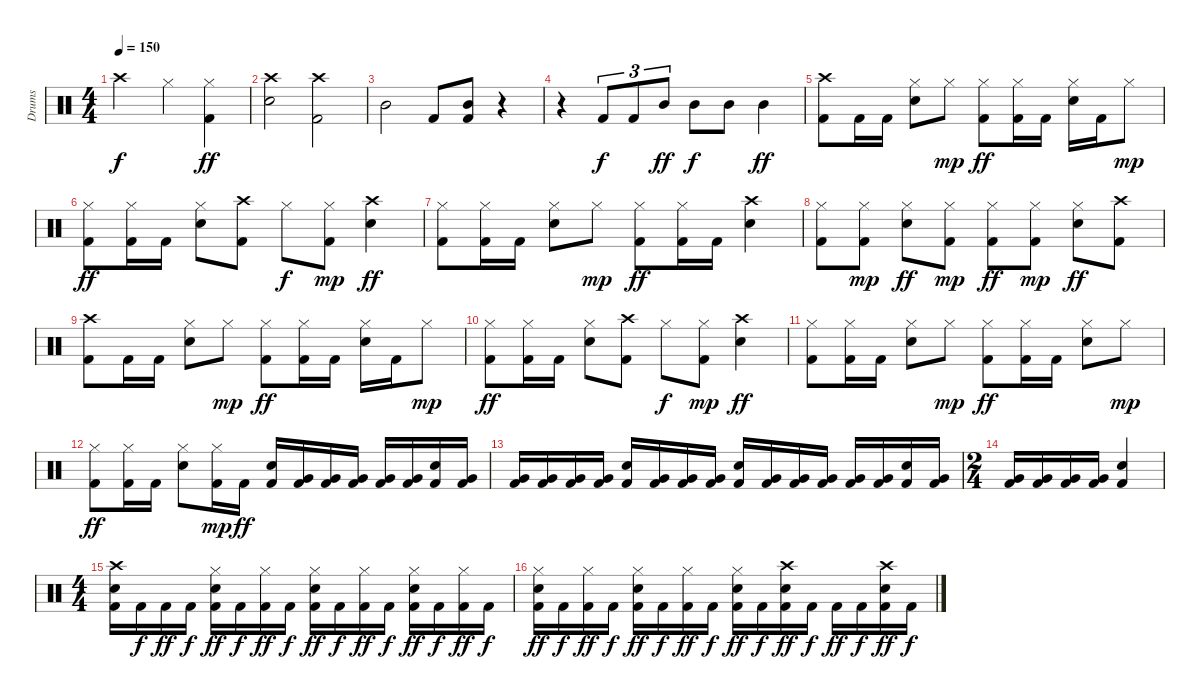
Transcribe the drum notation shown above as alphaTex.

\track ("Drums" "Drums") {instrument percussion}
\staff {score}
\articulation defaults
\ts (4 4)
\tempo 150
\clef neutral
\ks c "Crash high (hit)".2{dy f} "Hi-Hat (closed)".4
("Hi-Hat (closed)" "Kick (hit) 2").4{dy ff} |
("Crash high (hit)" "Snare (hit) 2").2 ("Crash high (hit)" "Kick (hit) 2").2 |
"Mid Tom (hit)".2 "Kick (hit) 2".8 ("Kick (hit) 2" "Mid Tom (hit)").8 r.4 |
r.4 "Kick (hit) 2".8{tu (3 2) dy f} "Kick (hit) 2".8{tu (3 2)} "Mid Tom (hit)".8{tu (3 2) dy ff} "Mid Tom (hit)".8{dy f} "Mid Tom (hit)".8 "Mid Tom (hit)".4{dy ff} |
("Crash high (hit)" "Kick (hit) 2").8 "Kick (hit) 2".16 "Kick (hit) 2".16 ("Hi-Hat (closed)" "Snare (hit) 2").8 "Hi-Hat (closed)".8{dy mp} ("Hi-Hat (closed)" "Kick (hit) 2").8{dy ff} ("Hi-Hat (closed)" "Kick (hit) 2").16 "Kick (hit) 2".16 ("Hi-Hat (closed)" "Snare (hit) 2").16 "Kick (hit) 2".16 "Hi-Hat (closed)".8{dy mp} |
("Hi-Hat (closed)" "Kick (hit) 2").8{dy ff} ("Hi-Hat (closed)" "Kick (hit) 2").16 "Kick (hit) 2".16 ("Hi-Hat (closed)" "Snare (hit) 2").8 ("Crash high (hit)" "Kick (hit) 2").8 "Hi-Hat (closed)".8{dy f} ("Kick (hit) 2" "Hi-Hat (closed)").8{dy mp} ("Snare (hit) 2" "Crash high (hit)").4{dy ff} |
("Hi-Hat (closed)" "Kick (hit) 2").8 ("Hi-Hat (closed)" "Kick (hit) 2").16 "Kick (hit) 2".16 ("Hi-Hat (closed)" "Snare (hit) 2").8 "Hi-Hat (closed)".8{dy mp} ("Hi-Hat (closed)" "Kick (hit) 2").8{dy ff} ("Hi-Hat (closed)" "Kick (hit) 2").16 "Kick (hit) 2".16 ("Snare (hit) 2" "Crash high (hit)").4 |
("Hi-Hat (closed)" "Kick (hit) 2").8 ("Kick (hit) 2" "Hi-Hat (closed)").8{dy mp} ("Hi-Hat (closed)" "Snare (hit) 2").8{dy ff} ("Kick (hit) 2" "Hi-Hat (closed)").8{dy mp} ("Hi-Hat (closed)" "Kick (hit) 2").8{dy ff} ("Kick (hit) 2" "Hi-Hat (closed)").8{dy mp} ("Hi-Hat (closed)" "Snare (hit) 2").8{dy ff} ("Kick (hit) 2" "Crash high (hit)").8 |
("Crash high (hit)" "Kick (hit) 2").8 "Kick (hit) 2".16 "Kick (hit) 2".16 ("Hi-Hat (closed)" "Snare (hit) 2").8 "Hi-Hat (closed)".8{dy mp} ("Hi-Hat (closed)" "Kick (hit) 2").8{dy ff} ("Hi-Hat (closed)" "Kick (hit) 2").16 "Kick (hit) 2".16 ("Hi-Hat (closed)" "Snare (hit) 2").16 "Kick (hit) 2".16 "Hi-Hat (closed)".8{dy mp} |
("Hi-Hat (closed)" "Kick (hit) 2").8{dy ff} ("Hi-Hat (closed)" "Kick (hit) 2").16 "Kick (hit) 2".16 ("Hi-Hat (closed)" "Snare (hit) 2").8 ("Crash high (hit)" "Kick (hit) 2").8 "Hi-Hat (closed)".8{dy f} ("Kick (hit) 2" "Hi-Hat (closed)").8{dy mp} ("Snare (hit) 2" "Crash high (hit)").4{dy ff} |
("Hi-Hat (closed)" "Kick (hit) 2").8 ("Hi-Hat (closed)" "Kick (hit) 2").16 "Kick (hit) 2".16 ("Hi-Hat (closed)" "Snare (hit) 2").8 "Hi-Hat (closed)".8{dy mp} ("Hi-Hat (closed)" "Kick (hit) 2").8{dy ff} ("Hi-Hat (closed)" "Kick (hit) 2").16 "Kick (hit) 2".16 ("Hi-Hat (closed)" "Snare (hit) 2").8 "Hi-Hat (closed)".8{dy mp} |
("Hi-Hat (closed)" "Kick (hit) 2").8{dy ff} ("Hi-Hat (closed)" "Kick (hit) 2").16 "Kick (hit) 2".16 ("Hi-Hat (closed)" "Snare (hit) 2").8 ("Kick (hit) 2" "Hi-Hat (closed)").16{dy mp} "Kick (hit) 2".16{dy ff} ("Snare (hit) 2" "Kick (hit) 2").16 ("Very Low Tom (hit)" "Kick (hit) 2").16 ("Very Low Tom (hit)" "Kick (hit) 2").16 ("Very Low Tom (hit)" "Kick (hit) 2").16 ("Kick (hit) 2" "Very Low Tom (hit)").16 ("Kick (hit) 2" "Very Low Tom (hit)").16 ("Snare (hit) 2" "Kick (hit) 2").16 ("Kick (hit) 2" "Very Low Tom (hit)").16 |
("Kick (hit) 2" "Very Low Tom (hit)").16 ("Kick (hit) 2" "Very Low Tom (hit)").16 ("Kick (hit) 2" "Very Low Tom (hit)").16 ("Kick (hit) 2" "Very Low Tom (hit)").16 ("Kick (hit) 2" "Snare (hit) 2").16 ("Kick (hit) 2" "Very Low Tom (hit)").16 ("Kick (hit) 2" "Very Low Tom (hit)").16 ("Kick (hit) 2" "Very Low Tom (hit)").16 ("Snare (hit) 2" "Kick (hit) 2").16 ("Very Low Tom (hit)" "Kick (hit) 2").16 ("Very Low Tom (hit)" "Kick (hit) 2").16 ("Very Low Tom (hit)" "Kick (hit) 2").16 ("Kick (hit) 2" "Very Low Tom (hit)").16 ("Kick (hit) 2" "Very Low Tom (hit)").16 ("Snare (hit) 2" "Kick (hit) 2").16 ("Kick (hit) 2" "Very Low Tom (hit)").16 |
\ts (2 4)
("Kick (hit) 2" "Very Low Tom (hit)").16 ("Kick (hit) 2" "Very Low Tom (hit)").16 ("Kick (hit) 2" "Very Low Tom (hit)").16 ("Kick (hit) 2" "Very Low Tom (hit)").16 ("Kick (hit) 2" "Snare (hit) 2").4 |
\ts (4 4)
("Kick (hit) 2" "Crash high (hit)" "Snare (hit) 2").16 "Kick (hit) 2".16{dy f} "Kick (hit) 2".16{dy ff} "Kick (hit) 2".16{dy f} ("Kick (hit) 2" "Hi-Hat (closed)" "Snare (hit) 2").16{dy ff} "Kick (hit) 2".16{dy f} ("Hi-Hat (closed)" "Kick (hit) 2").16{dy ff} "Kick (hit) 2".16{dy f} ("Kick (hit) 2" "Hi-Hat (closed)" "Snare (hit) 2").16{dy ff} "Kick (hit) 2".16{dy f} ("Hi-Hat (closed)" "Kick (hit) 2").16{dy ff} "Kick (hit) 2".16{dy f} ("Kick (hit) 2" "Hi-Hat (closed)" "Snare (hit) 2").16{dy ff} "Kick (hit) 2".16{dy f} ("Hi-Hat (closed)" "Kick (hit) 2").16{dy ff} "Kick (hit) 2".16{dy f} |
("Kick (hit) 2" "Hi-Hat (closed)" "Snare (hit) 2").16{dy ff} "Kick (hit) 2".16{dy f} ("Hi-Hat (closed)" "Kick (hit) 2").16{dy ff} "Kick (hit) 2".16{dy f} ("Kick (hit) 2" "Hi-Hat (closed)" "Snare (hit) 2").16{dy ff} "Kick (hit) 2".16{dy f} ("Hi-Hat (closed)" "Kick (hit) 2").16{dy ff} "Kick (hit) 2".16{dy f} ("Kick (hit) 2" "Hi-Hat (closed)" "Snare (hit) 2").16{dy ff} "Kick (hit) 2".16{dy f} ("Kick (hit) 2" "Snare (hit) 2" "Crash high (hit)").16{dy ff} "Kick (hit) 2".16{dy f} "Kick (hit) 2".16{dy ff} "Kick (hit) 2".16{dy f} ("Kick (hit) 2" "Snare (hit) 2" "Crash high (hit)").16{dy ff} "Kick (hit) 2".16{dy f}
